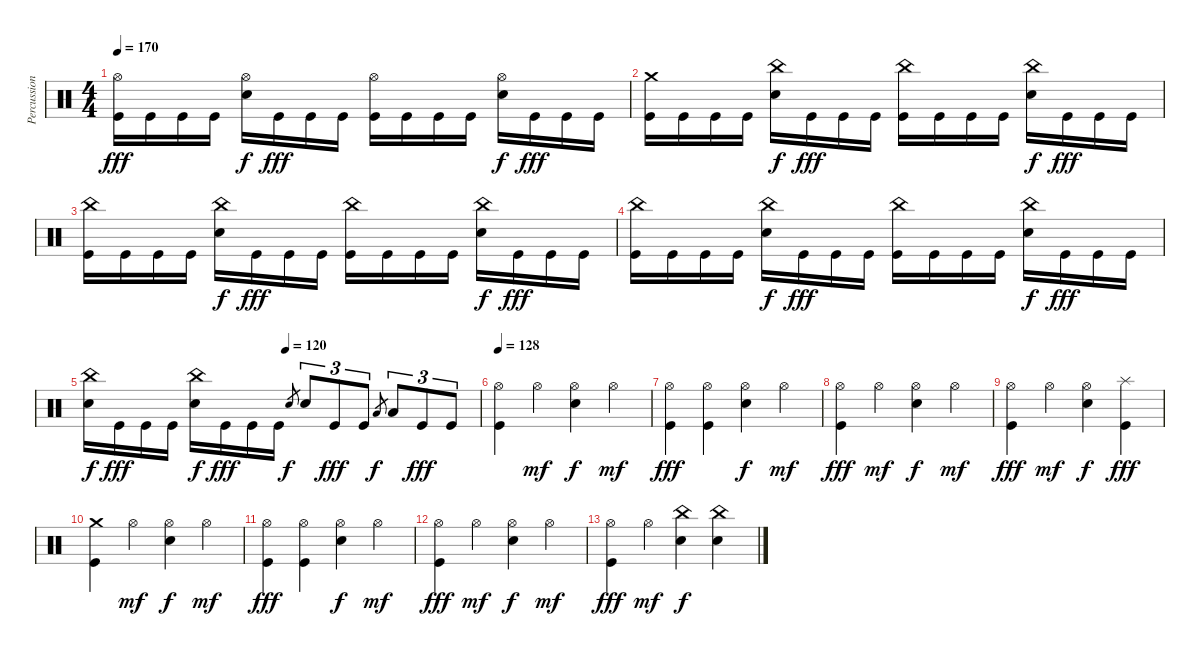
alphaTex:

\track ("Percussion" "Percussion") {instrument percussion}
\staff {score}
\articulation defaults
\ts (4 4)
\tempo 170
\clef neutral
\ks c
("Hi-Hat (open)" "Kick (hit)").16{dy fff} "Kick (hit)".16 "Kick (hit)".16 "Kick (hit)".16 ("Hi-Hat (open)" "Electric Snare (hit)").16{dy f} "Kick (hit)".16{dy fff} "Kick (hit)".16 "Kick (hit)".16 ("Hi-Hat (open)" "Kick (hit)").16 "Kick (hit)".16 "Kick (hit)".16 "Kick (hit)".16 ("Hi-Hat (open)" "Electric Snare (hit)").16{dy f} "Kick (hit)".16{dy fff} "Kick (hit)".16 "Kick (hit)".16 |
("Crash medium (hit)" "Kick (hit)").16 "Kick (hit)".16 "Kick (hit)".16 "Kick (hit)".16 ("China (hit)" "Electric Snare (hit)").16{dy f} "Kick (hit)".16{dy fff} "Kick (hit)".16 "Kick (hit)".16 ("China (hit)" "Kick (hit)").16 "Kick (hit)".16 "Kick (hit)".16 "Kick (hit)".16 ("China (hit)" "Electric Snare (hit)").16{dy f} "Kick (hit)".16{dy fff} "Kick (hit)".16 "Kick (hit)".16 |
("China (hit)" "Kick (hit)").16 "Kick (hit)".16 "Kick (hit)".16 "Kick (hit)".16 ("China (hit)" "Electric Snare (hit)").16{dy f} "Kick (hit)".16{dy fff} "Kick (hit)".16 "Kick (hit)".16 ("China (hit)" "Kick (hit)").16 "Kick (hit)".16 "Kick (hit)".16 "Kick (hit)".16 ("China (hit)" "Electric Snare (hit)").16{dy f} "Kick (hit)".16{dy fff} "Kick (hit)".16 "Kick (hit)".16 |
("China (hit)" "Kick (hit)").16 "Kick (hit)".16 "Kick (hit)".16 "Kick (hit)".16 ("China (hit)" "Electric Snare (hit)").16{dy f} "Kick (hit)".16{dy fff} "Kick (hit)".16 "Kick (hit)".16 ("China (hit)" "Kick (hit)").16 "Kick (hit)".16 "Kick (hit)".16 "Kick (hit)".16 ("China (hit)" "Electric Snare (hit)").16{dy f} "Kick (hit)".16{dy fff} "Kick (hit)".16 "Kick (hit)".16 |
\tempo (120 0.5)
("China (hit)" "Electric Snare (hit)").16{dy f} "Kick (hit)".16{dy fff} "Kick (hit)".16 "Kick (hit)".16 ("China (hit)" "Electric Snare (hit)").16{dy f} "Kick (hit)".16{dy fff} "Kick (hit)".16 "Kick (hit)".16 "Electric Snare (hit)".8{gr dy f} "Electric Snare (hit)".8{tu (3 2)} "Kick (hit)".8{tu (3 2) dy fff} "Kick (hit)".8{tu (3 2)} "Low Floor Tom (hit)".8{gr dy f} "Low Floor Tom (hit)".8{tu (3 2)} "Kick (hit)".8{tu (3 2) dy fff} "Kick (hit)".8{tu (3 2)} |
\tempo 128
("Hi-Hat (open)" "Kick (hit)").4 "Hi-Hat (open)".4{dy mf} ("Hi-Hat (open)" "Electric Snare (hit)").4{dy f} "Hi-Hat (open)".4{dy mf} |
("Hi-Hat (open)" "Kick (hit)").4{dy fff} ("Hi-Hat (open)" "Kick (hit)").4 ("Hi-Hat (open)" "Electric Snare (hit)").4{dy f} "Hi-Hat (open)".4{dy mf} |
("Hi-Hat (open)" "Kick (hit)").4{dy fff} "Hi-Hat (open)".4{dy mf} ("Hi-Hat (open)" "Electric Snare (hit)").4{dy f} "Hi-Hat (open)".4{dy mf} |
("Hi-Hat (open)" "Kick (hit)").4{dy fff} "Hi-Hat (open)".4{dy mf} ("Hi-Hat (open)" "Electric Snare (hit)").4{dy f} ("Splash (hit)" "Kick (hit)").4{dy fff} |
("Crash medium (hit)" "Kick (hit)").4 "Hi-Hat (open)".4{dy mf} ("Hi-Hat (open)" "Electric Snare (hit)").4{dy f} "Hi-Hat (open)".4{dy mf} |
("Hi-Hat (open)" "Kick (hit)").4{dy fff} ("Hi-Hat (open)" "Kick (hit)").4 ("Hi-Hat (open)" "Electric Snare (hit)").4{dy f} "Hi-Hat (open)".4{dy mf} |
("Hi-Hat (open)" "Kick (hit)").4{dy fff} "Hi-Hat (open)".4{dy mf} ("Hi-Hat (open)" "Electric Snare (hit)").4{dy f} "Hi-Hat (open)".4{dy mf} |
("Hi-Hat (open)" "Kick (hit)").4{dy fff} "Hi-Hat (open)".4{dy mf} ("China (hit)" "Electric Snare (hit)").4{dy f} ("China (hit)" "Electric Snare (hit)").4
